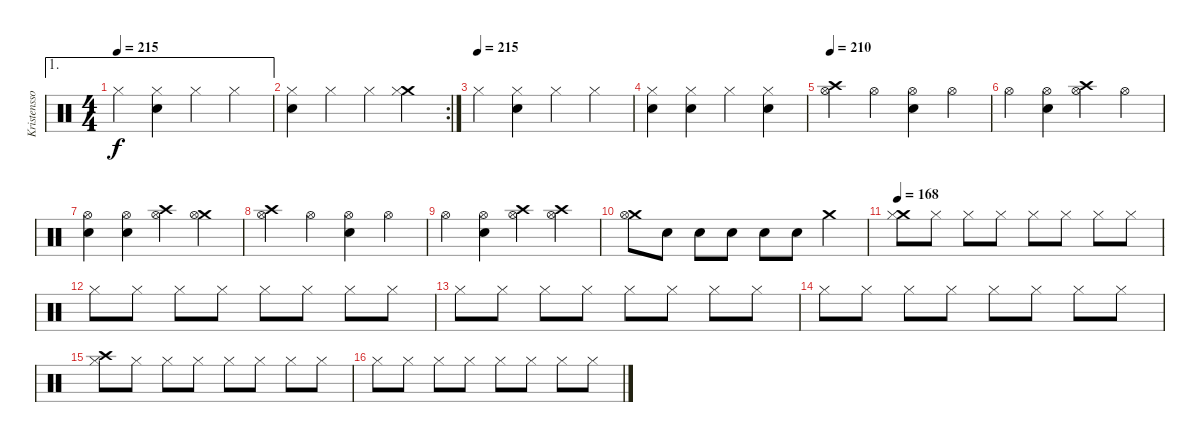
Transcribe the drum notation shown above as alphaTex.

\track ("Kristensson" "Kristensso") {instrument percussion}
\staff {score}
\articulation defaults
\ae 1
\ts (4 4)
\tempo 215
\clef neutral
\ks c "Hi-Hat (closed)".4{dy f}
("Snare (hit) 2" "Hi-Hat (closed)").4 "Hi-Hat (closed)".4 "Hi-Hat (closed)".4 |
\rc 2
("Snare (hit) 2" "Hi-Hat (closed)").4 "Hi-Hat (closed)".4 "Hi-Hat (closed)".4 ("Crash medium (hit)" "Hi-Hat (closed)").4 |
\tempo (215)
"Hi-Hat (closed)".4 ("Snare (hit) 2" "Hi-Hat (closed)").4 "Hi-Hat (closed)".4 "Hi-Hat (closed)".4 |
("Snare (hit) 2" "Hi-Hat (closed)").4 ("Snare (hit) 2" "Hi-Hat (closed)").4 "Hi-Hat (closed)".4 ("Snare (hit) 2" "Hi-Hat (closed)").4 |
\tempo 210
("Crash high (hit)" "Hi-Hat (open)").4 "Hi-Hat (open)".4 ("Snare (hit) 2" "Hi-Hat (open)").4 "Hi-Hat (open)".4 |
"Hi-Hat (open)".4 ("Snare (hit) 2" "Hi-Hat (open)").4 ("Crash high (hit)" "Hi-Hat (open)").4 "Hi-Hat (open)".4 |
("Snare (hit) 2" "Hi-Hat (open)").4 ("Snare (hit) 2" "Hi-Hat (open)").4 ("Crash high (hit)" "Hi-Hat (open)").4 ("Crash medium (hit)" "Hi-Hat (open)").4 |
("Crash high (hit)" "Hi-Hat (open)").4 "Hi-Hat (open)".4 ("Snare (hit) 2" "Hi-Hat (open)").4 "Hi-Hat (open)".4 |
"Hi-Hat (open)".4 ("Snare (hit) 2" "Hi-Hat (open)").4 ("Crash high (hit)" "Hi-Hat (open)").4 ("Crash high (hit)" "Hi-Hat (open)").4 |
("Crash medium (hit)" "Hi-Hat (open)").8 "Snare (hit) 2".8 "Snare (hit) 2".8 "Snare (hit) 2".8 "Snare (hit) 2".8 "Snare (hit) 2".8 "Crash medium (hit)".4 |
\tempo 168
("Crash medium (hit)" "Hi-Hat (closed)").8 "Hi-Hat (closed)".8 "Hi-Hat (closed)".8 "Hi-Hat (closed)".8 "Hi-Hat (closed)".8 "Hi-Hat (closed)".8 "Hi-Hat (closed)".8 "Hi-Hat (closed)".8 |
"Hi-Hat (closed)".8 "Hi-Hat (closed)".8 "Hi-Hat (closed)".8 "Hi-Hat (closed)".8 "Hi-Hat (closed)".8 "Hi-Hat (closed)".8 "Hi-Hat (closed)".8 "Hi-Hat (closed)".8 |
"Hi-Hat (closed)".8 "Hi-Hat (closed)".8 "Hi-Hat (closed)".8 "Hi-Hat (closed)".8 "Hi-Hat (closed)".8 "Hi-Hat (closed)".8 "Hi-Hat (closed)".8 "Hi-Hat (closed)".8 |
"Hi-Hat (closed)".8 "Hi-Hat (closed)".8 "Hi-Hat (closed)".8 "Hi-Hat (closed)".8 "Hi-Hat (closed)".8 "Hi-Hat (closed)".8 "Hi-Hat (closed)".8 "Hi-Hat (closed)".8 |
("Crash high (hit)" "Hi-Hat (closed)").8 "Hi-Hat (closed)".8 "Hi-Hat (closed)".8 "Hi-Hat (closed)".8 "Hi-Hat (closed)".8 "Hi-Hat (closed)".8 "Hi-Hat (closed)".8 "Hi-Hat (closed)".8 |
"Hi-Hat (closed)".8 "Hi-Hat (closed)".8 "Hi-Hat (closed)".8 "Hi-Hat (closed)".8 "Hi-Hat (closed)".8 "Hi-Hat (closed)".8 "Hi-Hat (closed)".8 "Hi-Hat (closed)".8
